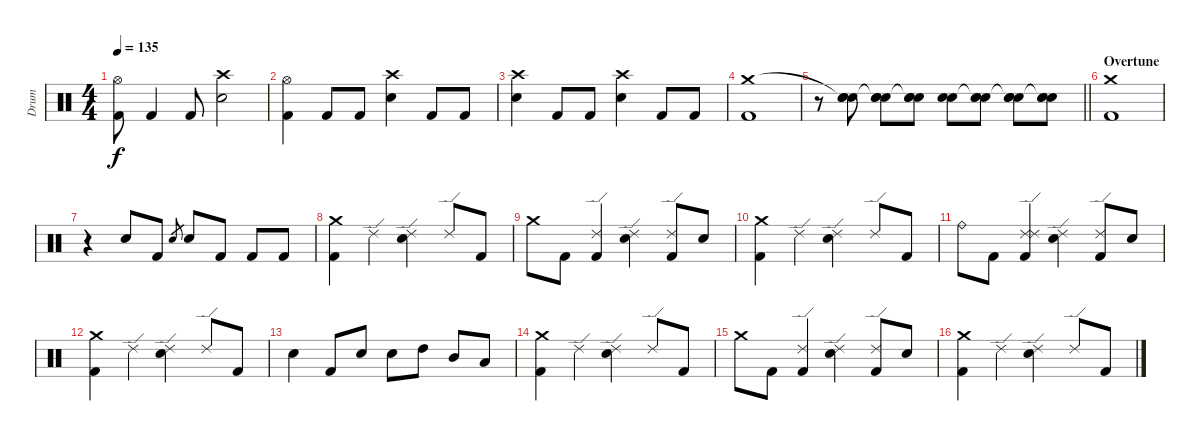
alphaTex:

\track ("Drum" "Drum") {instrument percussion}
\staff {score}
\articulation defaults
\ts (4 4)
\tempo 135
\clef neutral
\ks c
("Hi-Hat (open)" "Kick (hit) 2").8{dy f} "Kick (hit) 2".4 "Kick (hit) 2".8 ("Crash high (hit)" "Electric Snare (hit)").2 |
("Hi-Hat (open)" "Kick (hit) 2").4 "Kick (hit) 2".8 "Kick (hit) 2".8 ("Crash high (hit)" "Electric Snare (hit)").4 "Kick (hit) 2".8 "Kick (hit) 2".8 |
("Crash high (hit)" "Electric Snare (hit)").4 "Kick (hit) 2".8 "Kick (hit) 2".8 ("Crash high (hit)" "Electric Snare (hit)").4 "Kick (hit) 2".8 "Kick (hit) 2".8 |
("Crash medium (hit)" "Kick (hit) 2").1 |
\barLineRight lightlight
r.8 ("Snare (hit)"{t} "Electric Snare (hit)" "Electric Snare (hit)").8 ("Snare (hit)"{t} "Electric Snare (hit)" "Electric Snare (hit)").8 ("Snare (hit)"{t} "Electric Snare (hit)" "Electric Snare (hit)").8 ("Electric Snare (hit)" "Electric Snare (hit)").8 ("Snare (hit)"{t} "Electric Snare (hit)" "Electric Snare (hit)").8 ("Snare (hit)"{t} "Electric Snare (hit)" "Electric Snare (hit)").8 ("Snare (hit)"{t} "Electric Snare (hit)" "Electric Snare (hit)").8 |
\section ("" "Overtune")
("Crash medium (hit)" "Kick (hit) 2").1 |
r.4 "Electric Snare (hit)".8 "Kick (hit) 2".8 "Electric Snare (hit)".8{gr} "Electric Snare (hit)".8 "Kick (hit) 2".8 "Kick (hit) 2".8 "Kick (hit) 2".8 |
("Crash medium (hit)" "Kick (hit) 2").4 "Ride (edge) 2".4 ("Ride (edge) 2" "Electric Snare (hit)").4 "Ride (edge) 2".8 "Kick (hit) 2".8 |
"Crash medium (hit)".8 "Kick (hit) 2".8 ("Ride (edge) 2" "Kick (hit) 2").4 ("Ride (edge) 2" "Electric Snare (hit)").4 ("Ride (edge) 2" "Kick (hit) 2").8 "Electric Snare (hit)".8 |
("Crash medium (hit)" "Kick (hit) 2").4 "Ride (edge) 2".4 ("Ride (edge) 2" "Electric Snare (hit)").4 "Ride (edge) 2".8 "Kick (hit) 2".8 |
"Ride (bell)".8 "Kick (hit) 2".8 ("Ride (edge) 2" "Ride (edge) 2" "Kick (hit) 2").4 ("Ride (edge) 2" "Electric Snare (hit)").4 ("Ride (edge) 2" "Kick (hit) 2").8 "Electric Snare (hit)".8 |
("Crash medium (hit)" "Kick (hit) 2").4 "Ride (edge) 2".4 ("Ride (edge) 2" "Electric Snare (hit)").4 "Ride (edge) 2".8 "Kick (hit) 2".8 |
"Electric Snare (hit)".4 "Kick (hit) 2".8 "Electric Snare (hit)".8 "Electric Snare (hit)".8 "High Tom (hit)".8 "Mid Tom (hit)".8 "Low Tom (hit)".8 |
("Crash medium (hit)" "Kick (hit) 2").4 "Ride (edge) 2".4 ("Ride (edge) 2" "Electric Snare (hit)").4 "Ride (edge) 2".8 "Kick (hit) 2".8 |
"Crash medium (hit)".8 "Kick (hit) 2".8 ("Ride (edge) 2" "Kick (hit) 2").4 ("Ride (edge) 2" "Electric Snare (hit)").4 ("Ride (edge) 2" "Kick (hit) 2").8 "Electric Snare (hit)".8 |
("Crash medium (hit)" "Kick (hit) 2").4 "Ride (edge) 2".4 ("Ride (edge) 2" "Electric Snare (hit)").4 "Ride (edge) 2".8 "Kick (hit) 2".8
